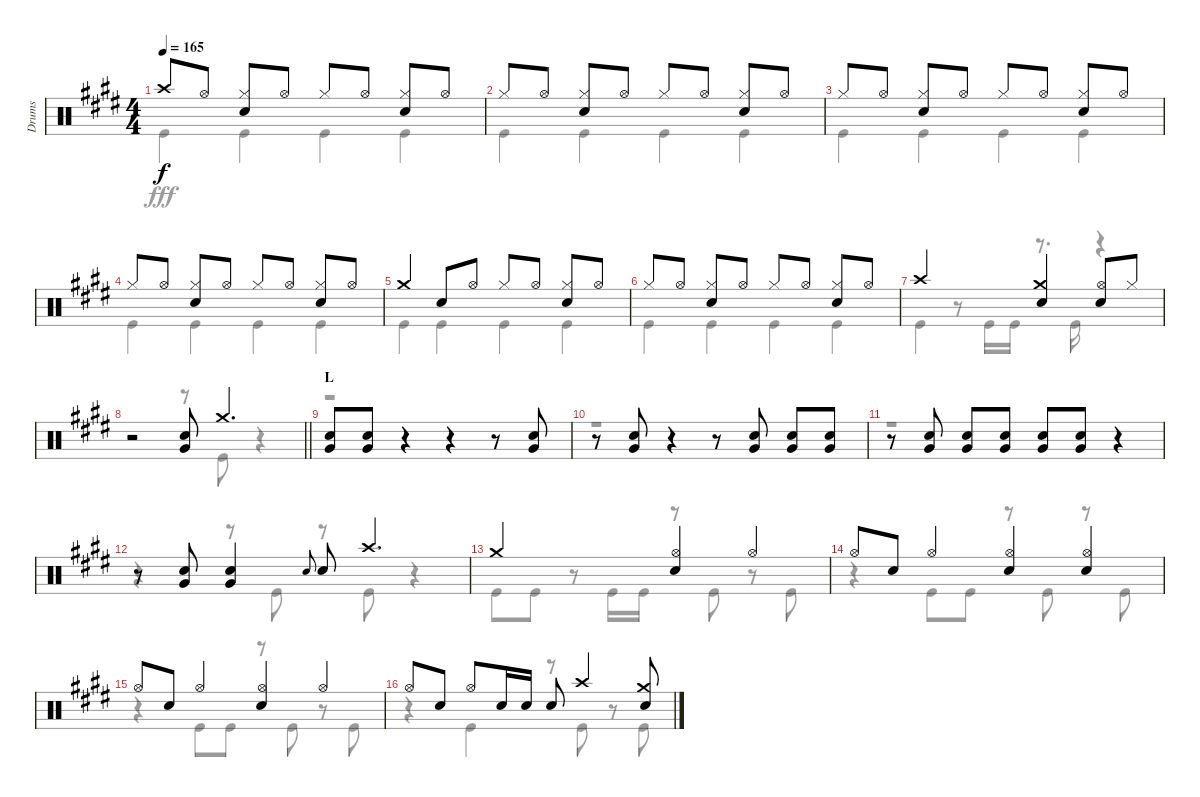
\track ("Drums" "Drums") {instrument percussion}
\staff {score}
\articulation defaults
\voice
\ts (4 4)
\tempo 165
\clef neutral
\ks e "Crash high (hit)".8{dy f} "Hi-Hat (open)".8
("Hi-Hat (closed)" "Snare (hit) 2").8 "Hi-Hat (open)".8 "Hi-Hat (closed)".8 "Hi-Hat (open)".8 ("Hi-Hat (closed)" "Snare (hit) 2").8 "Hi-Hat (open)".8 |
"Hi-Hat (closed)".8 "Hi-Hat (open)".8 ("Hi-Hat (closed)" "Snare (hit) 2").8 "Hi-Hat (open)".8 "Hi-Hat (closed)".8 "Hi-Hat (open)".8 ("Hi-Hat (closed)" "Snare (hit) 2").8 "Hi-Hat (open)".8 |
"Hi-Hat (closed)".8 "Hi-Hat (open)".8 ("Hi-Hat (closed)" "Snare (hit) 2").8 "Hi-Hat (open)".8 "Hi-Hat (closed)".8 "Hi-Hat (open)".8 ("Hi-Hat (closed)" "Snare (hit) 2").8 "Hi-Hat (open)".8 |
"Hi-Hat (closed)".8 "Hi-Hat (open)".8 ("Hi-Hat (closed)" "Snare (hit) 2").8 "Hi-Hat (open)".8 "Hi-Hat (closed)".8 "Hi-Hat (open)".8 ("Hi-Hat (closed)" "Snare (hit) 2").8 "Hi-Hat (open)".8 |
"Crash medium (hit)".4 "Snare (hit) 2".8 "Hi-Hat (open)".8 "Hi-Hat (closed)".8 "Hi-Hat (open)".8 ("Hi-Hat (closed)" "Snare (hit) 2").8 "Hi-Hat (open)".8 |
"Hi-Hat (closed)".8 "Hi-Hat (open)".8 ("Hi-Hat (closed)" "Snare (hit) 2").8 "Hi-Hat (open)".8 "Hi-Hat (closed)".8 "Hi-Hat (open)".8 ("Hi-Hat (closed)" "Snare (hit) 2").8 "Hi-Hat (open)".8 |
"Crash high (hit)".2 ("Crash medium (hit)" "Snare (hit) 2").4 ("Hi-Hat (open)" "Snare (hit) 2").8 "Hi-Hat (closed)".8 |
\barLineRight lightlight
r.2 ("Snare (hit) 2" "Very Low Tom (hit)").8 "Crash medium (hit)".4{d} |
\section ("" "L")
("Snare (hit) 2" "Very Low Tom (hit)").8 ("Snare (hit) 2" "Very Low Tom (hit)").8 r.4 r.4 r.8 ("Snare (hit) 2" "Very Low Tom (hit)").8 |
r.8 ("Snare (hit) 2" "Very Low Tom (hit)").8 r.4 r.8 ("Snare (hit) 2" "Very Low Tom (hit)").8 ("Snare (hit) 2" "Very Low Tom (hit)").8 ("Snare (hit) 2" "Very Low Tom (hit)").8 |
r.8 ("Snare (hit) 2" "Very Low Tom (hit)").8 ("Snare (hit) 2" "Very Low Tom (hit)").8 ("Snare (hit) 2" "Very Low Tom (hit)").8 ("Snare (hit) 2" "Very Low Tom (hit)").8 ("Snare (hit) 2" "Very Low Tom (hit)").8 r.4 |
r.8 ("Snare (hit) 2" "Very Low Tom (hit)").8 ("Snare (hit) 2" "Very Low Tom (hit)").4 "Snare (hit) 2".8{gr onbeat} "Snare (hit) 2".8 "Crash high (hit)".4{d} |
"Crash medium (hit)".2 ("Hi-Hat (open)" "Snare (hit) 2").4 "Hi-Hat (open)".4 |
"Hi-Hat (open)".8 "Snare (hit) 2".8 "Hi-Hat (open)".4 ("Hi-Hat (open)" "Snare (hit) 2").4 ("Hi-Hat (open)" "Snare (hit) 2").4 |
"Hi-Hat (open)".8 "Snare (hit) 2".8 "Hi-Hat (open)".4 ("Hi-Hat (open)" "Snare (hit) 2").4 "Hi-Hat (open)".4 |
"Hi-Hat (open)".8 "Snare (hit) 2".8 "Hi-Hat (open)".8 "Snare (hit) 2".16 "Snare (hit) 2".16 "Snare (hit) 2".8 "Crash high (hit)".4 ("Crash medium (hit)" "Snare (hit) 2").8
\voice
\clef neutral
\ottava regular
\simile none
\ks e "Kick (hit)".4{dy fff} "Kick (hit)".4 "Kick (hit)".4 "Kick (hit)".4
|
"Kick (hit)".4 "Kick (hit)".4 "Kick (hit)".4 "Kick (hit)".4 |
"Kick (hit)".4 "Kick (hit)".4 "Kick (hit)".4 "Kick (hit)".4 |
"Kick (hit)".4 "Kick (hit)".4 "Kick (hit)".4 "Kick (hit)".4 |
"Kick (hit)".4 "Kick (hit)".4 "Kick (hit)".4 "Kick (hit)".4 |
"Kick (hit)".4 "Kick (hit)".4 "Kick (hit)".4 "Kick (hit)".4 |
"Kick (hit)".4 r.8 "Kick (hit)".16 "Kick (hit)".16 r.8{d} "Kick (hit)".16 r.4 |
\barLineRight lightlight
r.2 r.8 "Kick (hit)".8 r.4 |
r.1 |
r.1 |
r.1 |
r.4 r.8 "Kick (hit)".8 r.8 "Kick (hit)".8 r.4 |
"Kick (hit)".8 "Kick (hit)".8 r.8 "Kick (hit)".16 "Kick (hit)".16 r.8 "Kick (hit)".8 r.8 "Kick (hit)".8 |
r.4 "Kick (hit)".8 "Kick (hit)".8 r.8 "Kick (hit)".8 r.8 "Kick (hit)".8 |
r.4 "Kick (hit)".8 "Kick (hit)".8 r.8 "Kick (hit)".8 r.8 "Kick (hit)".8 |
r.4 "Kick (hit)".4 r.8 "Kick (hit)".8 r.8 "Kick (hit)".8
